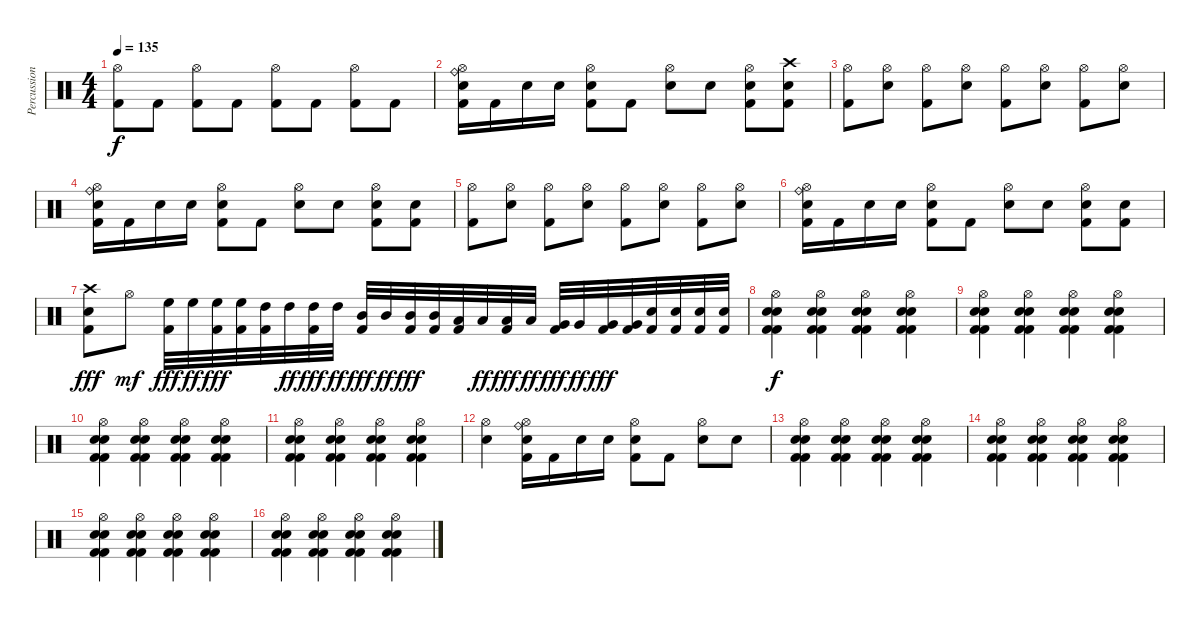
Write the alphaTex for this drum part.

\track ("Percussions" "Percussion") {instrument percussion}
\staff {score}
\articulation defaults
\ts (4 4)
\tempo 135
\clef neutral
\ks c
("Hi-Hat (open)" "Kick (hit) 2").8{dy f} "Kick (hit) 2".8 ("Hi-Hat (open)" "Kick (hit) 2").8 "Kick (hit) 2".8 ("Hi-Hat (open)" "Kick (hit) 2").8 "Kick (hit) 2".8 ("Hi-Hat (open)" "Kick (hit) 2").8 "Kick (hit) 2".8 |
("Hi-Hat (open)" "Ride (bell)" "Snare (hit) 2" "Kick (hit) 2").16 "Kick (hit) 2".16 "Snare (hit) 2".16 "Electric Snare (hit)".16 ("Hi-Hat (open)" "Snare (hit) 2" "Kick (hit) 2").8 "Kick (hit) 2".8 ("Hi-Hat (open)" "Snare (hit) 2").8 "Electric Snare (hit)".8 ("Hi-Hat (open)" "Snare (hit) 2" "Kick (hit) 2").8 ("Crash high (hit)" "Electric Snare (hit)" "Kick (hit) 2").8 |
("Hi-Hat (open)" "Kick (hit) 2").8 ("Hi-Hat (open)" "Electric Snare (hit)").8 ("Hi-Hat (open)" "Kick (hit) 2").8 ("Hi-Hat (open)" "Electric Snare (hit)").8 ("Hi-Hat (open)" "Kick (hit) 2").8 ("Hi-Hat (open)" "Electric Snare (hit)").8 ("Hi-Hat (open)" "Kick (hit) 2").8 ("Hi-Hat (open)" "Electric Snare (hit)").8 |
("Hi-Hat (open)" "Ride (bell)" "Electric Snare (hit)" "Kick (hit) 2").16 "Kick (hit) 2".16 "Electric Snare (hit)".16 "Electric Snare (hit)".16 ("Hi-Hat (open)" "Electric Snare (hit)" "Kick (hit) 2").8 "Kick (hit) 2".8 ("Hi-Hat (open)" "Electric Snare (hit)").8 "Electric Snare (hit)".8 ("Hi-Hat (open)" "Electric Snare (hit)" "Kick (hit) 2").8 ("Electric Snare (hit)" "Kick (hit) 2").8 |
("Hi-Hat (open)" "Kick (hit) 2").8 ("Hi-Hat (open)" "Electric Snare (hit)").8 ("Hi-Hat (open)" "Kick (hit) 2").8 ("Hi-Hat (open)" "Electric Snare (hit)").8 ("Hi-Hat (open)" "Kick (hit) 2").8 ("Hi-Hat (open)" "Electric Snare (hit)").8 ("Hi-Hat (open)" "Kick (hit) 2").8 ("Hi-Hat (open)" "Electric Snare (hit)").8 |
("Hi-Hat (open)" "Ride (bell)" "Electric Snare (hit)" "Kick (hit) 2").16 "Kick (hit) 2".16 "Electric Snare (hit)".16 "Electric Snare (hit)".16 ("Hi-Hat (open)" "Electric Snare (hit)" "Kick (hit) 2").8 "Kick (hit) 2".8 ("Hi-Hat (open)" "Electric Snare (hit)").8 "Electric Snare (hit)".8 ("Hi-Hat (open)" "Electric Snare (hit)" "Kick (hit) 2").8 ("Electric Snare (hit)" "Kick (hit) 2").8 |
("Crash high (hit)" "Electric Snare (hit)" "Kick (hit) 2").8{dy fff} "Hi-Hat (open)".8{dy mf} ("High Floor Tom (hit)" "Kick (hit) 2").32{dy fff} "High Floor Tom (hit)".32{dy ff} ("High Floor Tom (hit)" "Kick (hit) 2").32{dy fff} ("High Floor Tom (hit)" "Kick (hit) 2").32 ("High Tom (hit)" "Kick (hit) 2").32 "High Tom (hit)".32{dy ff} ("High Tom (hit)" "Kick (hit) 2").32{dy fff} "High Tom (hit)".32{dy ff} ("Mid Tom (hit)" "Kick (hit) 2").32{dy fff} "Mid Tom (hit)".32{dy ff} ("Mid Tom (hit)" "Kick (hit) 2").32{dy fff} ("Mid Tom (hit)" "Kick (hit) 2").32 ("Low Tom (hit)" "Kick (hit) 2").32 "Low Tom (hit)".32{dy ff} ("Low Tom (hit)" "Kick (hit) 2").32{dy fff} "Low Tom (hit)".32{dy ff} ("Very Low Tom (hit)" "Kick (hit) 2").32{dy fff} "Very Low Tom (hit)".32{dy ff} ("Very Low Tom (hit)" "Kick (hit) 2").32{dy fff} ("Very Low Tom (hit)" "Kick (hit) 2").32 ("Electric Snare (hit)" "Kick (hit) 2").32 ("Electric Snare (hit)" "Kick (hit) 2").32 ("Electric Snare (hit)" "Kick (hit) 2").32 ("Electric Snare (hit)" "Kick (hit) 2").32 |
("Hi-Hat (open)" "Electric Snare (hit)" "Electric Snare (hit)" "Kick (hit) 2" "Kick (hit) 2").4{dy f} ("Hi-Hat (open)" "Electric Snare (hit)" "Electric Snare (hit)" "Kick (hit) 2" "Kick (hit) 2").4 ("Hi-Hat (open)" "Electric Snare (hit)" "Electric Snare (hit)" "Kick (hit) 2" "Kick (hit) 2").4 ("Hi-Hat (open)" "Electric Snare (hit)" "Electric Snare (hit)" "Kick (hit) 2" "Kick (hit) 2").4 |
("Hi-Hat (open)" "Electric Snare (hit)" "Electric Snare (hit)" "Kick (hit) 2" "Kick (hit) 2").4 ("Hi-Hat (open)" "Electric Snare (hit)" "Electric Snare (hit)" "Kick (hit) 2" "Kick (hit) 2").4 ("Hi-Hat (open)" "Electric Snare (hit)" "Electric Snare (hit)" "Kick (hit) 2" "Kick (hit) 2").4 ("Hi-Hat (open)" "Electric Snare (hit)" "Electric Snare (hit)" "Kick (hit) 2" "Kick (hit) 2").4 |
("Hi-Hat (open)" "Electric Snare (hit)" "Electric Snare (hit)" "Kick (hit) 2" "Kick (hit) 2").4 ("Hi-Hat (open)" "Electric Snare (hit)" "Electric Snare (hit)" "Kick (hit) 2" "Kick (hit) 2").4 ("Hi-Hat (open)" "Electric Snare (hit)" "Electric Snare (hit)" "Kick (hit) 2" "Kick (hit) 2").4 ("Hi-Hat (open)" "Electric Snare (hit)" "Electric Snare (hit)" "Kick (hit) 2" "Kick (hit) 2").4 |
("Hi-Hat (open)" "Electric Snare (hit)" "Electric Snare (hit)" "Kick (hit) 2" "Kick (hit) 2").4 ("Hi-Hat (open)" "Electric Snare (hit)" "Electric Snare (hit)" "Kick (hit) 2" "Kick (hit) 2").4 ("Hi-Hat (open)" "Electric Snare (hit)" "Electric Snare (hit)" "Kick (hit) 2" "Kick (hit) 2").4 ("Hi-Hat (open)" "Electric Snare (hit)" "Electric Snare (hit)" "Kick (hit) 2" "Kick (hit) 2").4 |
("Hi-Hat (open)" "Electric Snare (hit)").4 ("Hi-Hat (open)" "Ride (bell)" "Electric Snare (hit)" "Kick (hit) 2").16 "Kick (hit) 2".16 "Electric Snare (hit)".16 "Electric Snare (hit)".16 ("Hi-Hat (open)" "Electric Snare (hit)" "Kick (hit) 2").8 "Kick (hit) 2".8 ("Hi-Hat (open)" "Electric Snare (hit)").8 "Electric Snare (hit)".8 |
("Hi-Hat (open)" "Electric Snare (hit)" "Electric Snare (hit)" "Kick (hit) 2" "Kick (hit) 2").4 ("Hi-Hat (open)" "Electric Snare (hit)" "Electric Snare (hit)" "Kick (hit) 2" "Kick (hit) 2").4 ("Hi-Hat (open)" "Electric Snare (hit)" "Electric Snare (hit)" "Kick (hit) 2" "Kick (hit) 2").4 ("Hi-Hat (open)" "Electric Snare (hit)" "Electric Snare (hit)" "Kick (hit) 2" "Kick (hit) 2").4 |
("Hi-Hat (open)" "Electric Snare (hit)" "Electric Snare (hit)" "Kick (hit) 2" "Kick (hit) 2").4 ("Hi-Hat (open)" "Electric Snare (hit)" "Electric Snare (hit)" "Kick (hit) 2" "Kick (hit) 2").4 ("Hi-Hat (open)" "Electric Snare (hit)" "Electric Snare (hit)" "Kick (hit) 2" "Kick (hit) 2").4 ("Hi-Hat (open)" "Electric Snare (hit)" "Electric Snare (hit)" "Kick (hit) 2" "Kick (hit) 2").4 |
("Hi-Hat (open)" "Electric Snare (hit)" "Electric Snare (hit)" "Kick (hit) 2" "Kick (hit) 2").4 ("Hi-Hat (open)" "Electric Snare (hit)" "Electric Snare (hit)" "Kick (hit) 2" "Kick (hit) 2").4 ("Hi-Hat (open)" "Electric Snare (hit)" "Electric Snare (hit)" "Kick (hit) 2" "Kick (hit) 2").4 ("Hi-Hat (open)" "Electric Snare (hit)" "Electric Snare (hit)" "Kick (hit) 2" "Kick (hit) 2").4 |
("Hi-Hat (open)" "Electric Snare (hit)" "Electric Snare (hit)" "Kick (hit) 2" "Kick (hit) 2").4 ("Hi-Hat (open)" "Electric Snare (hit)" "Electric Snare (hit)" "Kick (hit) 2" "Kick (hit) 2").4 ("Hi-Hat (open)" "Electric Snare (hit)" "Electric Snare (hit)" "Kick (hit) 2" "Kick (hit) 2").4 ("Hi-Hat (open)" "Electric Snare (hit)" "Electric Snare (hit)" "Kick (hit) 2" "Kick (hit) 2").4
